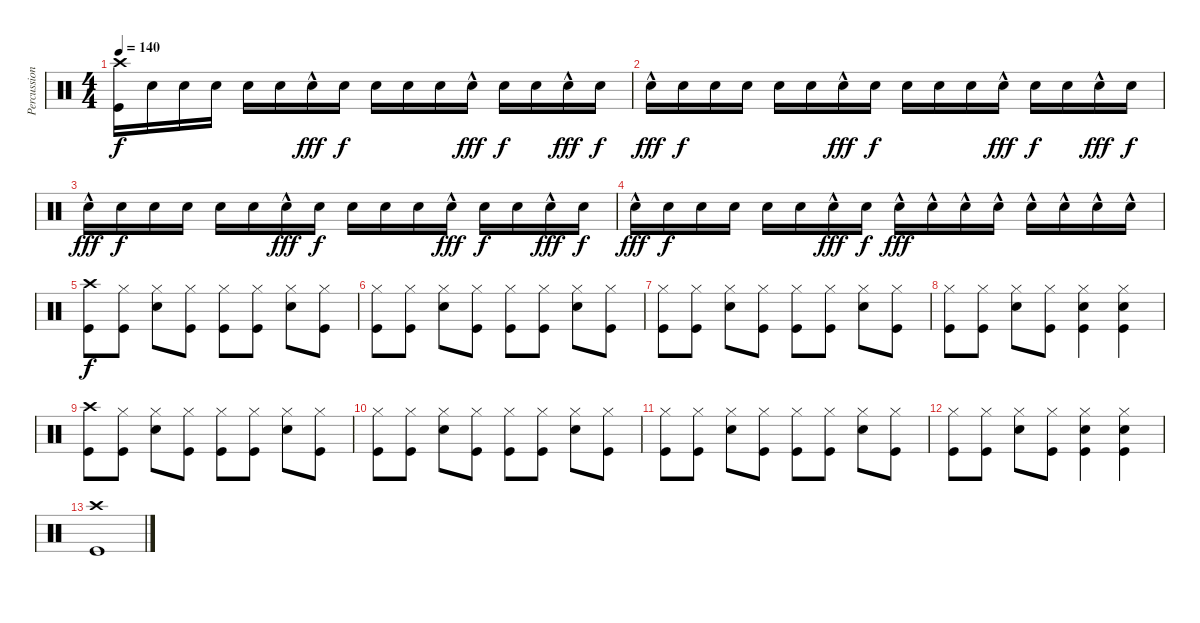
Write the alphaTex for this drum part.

\track ("Percussioni" "Percussion") {instrument percussion}
\staff {score}
\articulation defaults
\ts (4 4)
\tempo 140
\clef neutral
\ks c
("Crash high (hit)" "Kick (hit)").16{dy f volume 7} "Snare (hit) 2".16 "Snare (hit) 2".16 "Snare (hit) 2".16 "Snare (hit) 2".16 "Snare (hit) 2".16 "Snare (hit) 2"{hac}.16{dy fff} "Snare (hit) 2".16{dy f} "Snare (hit) 2".16 "Snare (hit) 2".16 "Snare (hit) 2".16 "Snare (hit) 2"{hac}.16{dy fff} "Snare (hit) 2".16{dy f} "Snare (hit) 2".16 "Snare (hit) 2"{hac}.16{dy fff} "Snare (hit) 2".16{dy f} |
"Snare (hit) 2"{hac}.16{dy fff volume 7} "Snare (hit) 2".16{dy f} "Snare (hit) 2".16 "Snare (hit) 2".16 "Snare (hit) 2".16 "Snare (hit) 2".16 "Snare (hit) 2"{hac}.16{dy fff} "Snare (hit) 2".16{dy f} "Snare (hit) 2".16 "Snare (hit) 2".16 "Snare (hit) 2".16 "Snare (hit) 2"{hac}.16{dy fff} "Snare (hit) 2".16{dy f} "Snare (hit) 2".16 "Snare (hit) 2"{hac}.16{dy fff} "Snare (hit) 2".16{dy f} |
"Snare (hit) 2"{hac}.16{dy fff volume 7} "Snare (hit) 2".16{dy f} "Snare (hit) 2".16 "Snare (hit) 2".16 "Snare (hit) 2".16 "Snare (hit) 2".16 "Snare (hit) 2"{hac}.16{dy fff} "Snare (hit) 2".16{dy f} "Snare (hit) 2".16 "Snare (hit) 2".16 "Snare (hit) 2".16 "Snare (hit) 2"{hac}.16{dy fff} "Snare (hit) 2".16{dy f} "Snare (hit) 2".16 "Snare (hit) 2"{hac}.16{dy fff} "Snare (hit) 2".16{dy f} |
"Snare (hit) 2"{hac}.16{dy fff volume 7} "Snare (hit) 2".16{dy f} "Snare (hit) 2".16 "Snare (hit) 2".16 "Snare (hit) 2".16 "Snare (hit) 2".16 "Snare (hit) 2"{hac}.16{dy fff} "Snare (hit) 2".16{dy f} "Snare (hit) 2"{hac}.16{dy fff} "Snare (hit) 2"{hac}.16 "Snare (hit) 2"{hac}.16 "Snare (hit) 2"{hac}.16 "Snare (hit) 2"{hac}.16 "Snare (hit) 2"{hac}.16 "Snare (hit) 2"{hac}.16 "Snare (hit) 2"{hac}.16 |
("Crash high (hit)" "Kick (hit)").8{dy f} ("Hi-Hat (closed)" "Kick (hit)").8 ("Hi-Hat (closed)" "Snare (hit) 2").8 ("Hi-Hat (closed)" "Kick (hit)").8 ("Hi-Hat (closed)" "Kick (hit)").8 ("Hi-Hat (closed)" "Kick (hit)").8 ("Hi-Hat (closed)" "Snare (hit) 2").8 ("Hi-Hat (closed)" "Kick (hit)").8 |
("Hi-Hat (closed)" "Kick (hit)").8 ("Hi-Hat (closed)" "Kick (hit)").8 ("Hi-Hat (closed)" "Snare (hit) 2").8 ("Hi-Hat (closed)" "Kick (hit)").8 ("Hi-Hat (closed)" "Kick (hit)").8 ("Hi-Hat (closed)" "Kick (hit)").8 ("Hi-Hat (closed)" "Snare (hit) 2").8 ("Hi-Hat (closed)" "Kick (hit)").8 |
("Hi-Hat (closed)" "Kick (hit)").8 ("Hi-Hat (closed)" "Kick (hit)").8 ("Hi-Hat (closed)" "Snare (hit) 2").8 ("Hi-Hat (closed)" "Kick (hit)").8 ("Hi-Hat (closed)" "Kick (hit)").8 ("Hi-Hat (closed)" "Kick (hit)").8 ("Hi-Hat (closed)" "Snare (hit) 2").8 ("Hi-Hat (closed)" "Kick (hit)").8 |
("Hi-Hat (closed)" "Kick (hit)").8 ("Hi-Hat (closed)" "Kick (hit)").8 ("Hi-Hat (closed)" "Snare (hit) 2").8 ("Hi-Hat (closed)" "Kick (hit)").8 ("Hi-Hat (closed)" "Snare (hit) 2" "Kick (hit)").4 ("Hi-Hat (closed)" "Snare (hit) 2" "Kick (hit)").4 |
("Crash high (hit)" "Kick (hit)").8 ("Hi-Hat (closed)" "Kick (hit)").8 ("Hi-Hat (closed)" "Snare (hit) 2").8 ("Hi-Hat (closed)" "Kick (hit)").8 ("Hi-Hat (closed)" "Kick (hit)").8 ("Hi-Hat (closed)" "Kick (hit)").8 ("Hi-Hat (closed)" "Snare (hit) 2").8 ("Hi-Hat (closed)" "Kick (hit)").8 |
("Hi-Hat (closed)" "Kick (hit)").8 ("Hi-Hat (closed)" "Kick (hit)").8 ("Hi-Hat (closed)" "Snare (hit) 2").8 ("Hi-Hat (closed)" "Kick (hit)").8 ("Hi-Hat (closed)" "Kick (hit)").8 ("Hi-Hat (closed)" "Kick (hit)").8 ("Hi-Hat (closed)" "Snare (hit) 2").8 ("Hi-Hat (closed)" "Kick (hit)").8 |
("Hi-Hat (closed)" "Kick (hit)").8 ("Hi-Hat (closed)" "Kick (hit)").8 ("Hi-Hat (closed)" "Snare (hit) 2").8 ("Hi-Hat (closed)" "Kick (hit)").8 ("Hi-Hat (closed)" "Kick (hit)").8 ("Hi-Hat (closed)" "Kick (hit)").8 ("Hi-Hat (closed)" "Snare (hit) 2").8 ("Hi-Hat (closed)" "Kick (hit)").8 |
("Hi-Hat (closed)" "Kick (hit)").8 ("Hi-Hat (closed)" "Kick (hit)").8 ("Hi-Hat (closed)" "Snare (hit) 2").8 ("Hi-Hat (closed)" "Kick (hit)").8 ("Hi-Hat (closed)" "Snare (hit) 2" "Kick (hit)").4 ("Hi-Hat (closed)" "Snare (hit) 2" "Kick (hit)").4 |
("Crash high (hit)" "Kick (hit)").1
